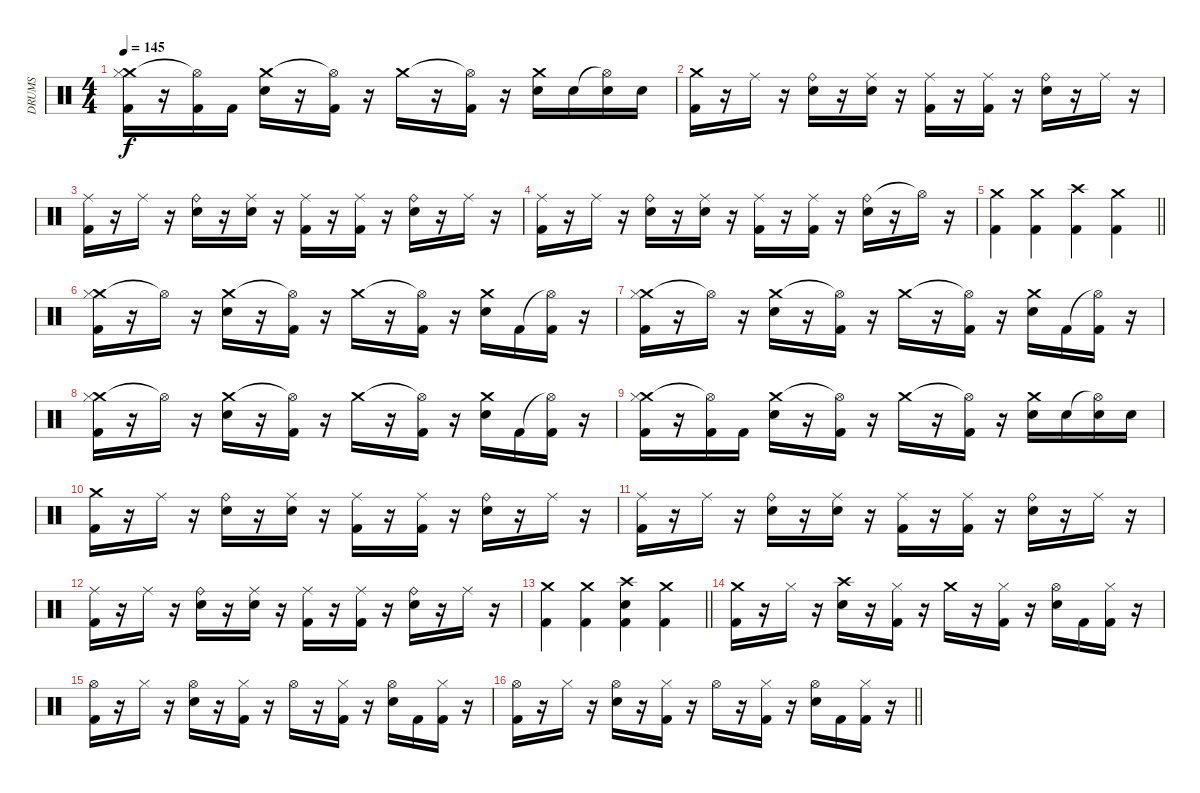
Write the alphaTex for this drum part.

\track ("DRUMS" "DRUMS") {instrument percussion}
\staff {score}
\articulation defaults
\ts (4 4)
\tempo 145
\clef neutral
\ks c
("Crash medium (hit)" "Hi-Hat (closed)" "Kick (hit) 2").16{dy f} r.16 ("Hi-Hat (open)"{t} "Kick (hit) 2").16 "Kick (hit) 2".16 ("Crash medium (hit)" "Electric Snare (hit)").16 r.16 ("Hi-Hat (open)"{t} "Kick (hit) 2").16 r.16 "Crash medium (hit)".16 r.16 ("Hi-Hat (open)"{t} "Kick (hit) 2").16 r.16 ("Crash medium (hit)" "Electric Snare (hit)").16 "Electric Snare (hit)".16 ("Hi-Hat (open)"{t} "Electric Snare (hit)").16 "Electric Snare (hit)".16 |
("Crash medium (hit)" "Kick (hit) 2").16 r.16 "Ride (middle)".16 r.16 ("Ride (bell)" "Electric Snare (hit)").16 r.16 ("Ride (middle)" "Electric Snare (hit)").16 r.16 ("Ride (middle)" "Kick (hit) 2").16 r.16 ("Ride (middle)" "Kick (hit) 2").16 r.16 ("Ride (bell)" "Electric Snare (hit)").16 r.16 "Ride (middle)".16 r.16 |
("Ride (middle)" "Kick (hit) 2").16 r.16 "Ride (middle)".16 r.16 ("Ride (bell)" "Electric Snare (hit)").16 r.16 ("Ride (middle)" "Electric Snare (hit)").16 r.16 ("Ride (middle)" "Kick (hit) 2").16 r.16 ("Ride (middle)" "Kick (hit) 2").16 r.16 ("Ride (bell)" "Electric Snare (hit)").16 r.16 "Ride (middle)".16 r.16 |
("Ride (middle)" "Kick (hit) 2").16 r.16 "Ride (middle)".16 r.16 ("Ride (bell)" "Electric Snare (hit)").16 r.16 ("Ride (middle)" "Electric Snare (hit)").16 r.16 ("Ride (middle)" "Kick (hit) 2").16 r.16 ("Ride (middle)" "Kick (hit) 2").16 r.16 ("Ride (bell)" "Electric Snare (hit)").16 r.16 "Hi-Hat (open)"{t}.16 r.16 |
\barLineRight lightlight
("Crash medium (hit)" "Kick (hit) 2").4 ("Crash medium (hit)" "Kick (hit) 2").4 ("Crash high (hit)" "Kick (hit) 2").4 ("Crash medium (hit)" "Kick (hit) 2").4 |
("Crash medium (hit)" "Hi-Hat (closed)" "Kick (hit) 2").16 r.16 "Hi-Hat (open)"{t}.16 r.16 ("Crash medium (hit)" "Electric Snare (hit)").16 r.16 ("Hi-Hat (open)"{t} "Kick (hit) 2").16 r.16 "Crash medium (hit)".16 r.16 ("Hi-Hat (open)"{t} "Kick (hit) 2").16 r.16 ("Crash medium (hit)" "Electric Snare (hit)").16 "Kick (hit) 2".16 ("Hi-Hat (open)"{t} "Kick (hit) 2").16 r.16 |
("Crash medium (hit)" "Hi-Hat (closed)" "Kick (hit) 2").16 r.16 "Hi-Hat (open)"{t}.16 r.16 ("Crash medium (hit)" "Electric Snare (hit)").16 r.16 ("Hi-Hat (open)"{t} "Kick (hit) 2").16 r.16 "Crash medium (hit)".16 r.16 ("Hi-Hat (open)"{t} "Kick (hit) 2").16 r.16 ("Crash medium (hit)" "Electric Snare (hit)").16 "Kick (hit) 2".16 ("Hi-Hat (open)"{t} "Kick (hit) 2").16 r.16 |
("Crash medium (hit)" "Hi-Hat (closed)" "Kick (hit) 2").16 r.16 "Hi-Hat (open)"{t}.16 r.16 ("Crash medium (hit)" "Electric Snare (hit)").16 r.16 ("Hi-Hat (open)"{t} "Kick (hit) 2").16 r.16 "Crash medium (hit)".16 r.16 ("Hi-Hat (open)"{t} "Kick (hit) 2").16 r.16 ("Crash medium (hit)" "Electric Snare (hit)").16 "Kick (hit) 2".16 ("Hi-Hat (open)"{t} "Kick (hit) 2").16 r.16 |
("Crash medium (hit)" "Hi-Hat (closed)" "Kick (hit) 2").16 r.16 ("Hi-Hat (open)"{t} "Kick (hit) 2").16 "Kick (hit) 2".16 ("Crash medium (hit)" "Electric Snare (hit)").16 r.16 ("Hi-Hat (open)"{t} "Kick (hit) 2").16 r.16 "Crash medium (hit)".16 r.16 ("Hi-Hat (open)"{t} "Kick (hit) 2").16 r.16 ("Crash medium (hit)" "Electric Snare (hit)").16 "Electric Snare (hit)".16 ("Hi-Hat (open)"{t} "Electric Snare (hit)").16 "Electric Snare (hit)".16 |
("Crash medium (hit)" "Kick (hit) 2").16 r.16 "Ride (middle)".16 r.16 ("Ride (bell)" "Electric Snare (hit)").16 r.16 ("Ride (middle)" "Electric Snare (hit)").16 r.16 ("Ride (middle)" "Kick (hit) 2").16 r.16 ("Ride (middle)" "Kick (hit) 2").16 r.16 ("Ride (bell)" "Electric Snare (hit)").16 r.16 "Ride (middle)".16 r.16 |
("Ride (middle)" "Kick (hit) 2").16 r.16 "Ride (middle)".16 r.16 ("Ride (bell)" "Electric Snare (hit)").16 r.16 ("Ride (middle)" "Electric Snare (hit)").16 r.16 ("Ride (middle)" "Kick (hit) 2").16 r.16 ("Ride (middle)" "Kick (hit) 2").16 r.16 ("Ride (bell)" "Electric Snare (hit)").16 r.16 "Ride (middle)".16 r.16 |
("Ride (middle)" "Kick (hit) 2").16 r.16 "Ride (middle)".16 r.16 ("Ride (bell)" "Electric Snare (hit)").16 r.16 ("Ride (middle)" "Electric Snare (hit)").16 r.16 ("Ride (middle)" "Kick (hit) 2").16 r.16 ("Ride (middle)" "Kick (hit) 2").16 r.16 ("Ride (bell)" "Electric Snare (hit)").16 r.16 "Ride (middle)".16 r.16 |
\barLineRight lightlight
("Crash medium (hit)" "Kick (hit) 2").4 ("Crash medium (hit)" "Kick (hit) 2").4 ("Crash high (hit)" "Electric Snare (hit)" "Kick (hit) 2").4 ("Crash medium (hit)" "Kick (hit) 2").4 |
("Crash medium (hit)" "Kick (hit) 2").16 r.16 "Hi-Hat (closed)".16 r.16 ("Crash high (hit)" "Electric Snare (hit)").16 r.16 ("Hi-Hat (closed)" "Kick (hit) 2").16 r.16 "Crash medium (hit)".16 r.16 ("Hi-Hat (closed)" "Kick (hit) 2").16 r.16 ("Hi-Hat (open)" "Electric Snare (hit)").16 "Kick (hit) 2".16 ("Hi-Hat (closed)" "Kick (hit) 2").16 r.16 |
("Hi-Hat (open)" "Kick (hit) 2").16 r.16 "Hi-Hat (closed)".16 r.16 ("Hi-Hat (open)" "Electric Snare (hit)").16 r.16 ("Hi-Hat (closed)" "Kick (hit) 2").16 r.16 "Hi-Hat (open)".16 r.16 ("Hi-Hat (closed)" "Kick (hit) 2").16 r.16 ("Hi-Hat (open)" "Electric Snare (hit)").16 "Kick (hit) 2".16 ("Hi-Hat (closed)" "Kick (hit) 2").16 r.16 |
\barLineRight lightlight
("Hi-Hat (open)" "Kick (hit) 2").16 r.16 "Hi-Hat (closed)".16 r.16 ("Hi-Hat (open)" "Electric Snare (hit)").16 r.16 ("Hi-Hat (closed)" "Kick (hit) 2").16 r.16 "Hi-Hat (open)".16 r.16 ("Hi-Hat (closed)" "Kick (hit) 2").16 r.16 ("Hi-Hat (open)" "Electric Snare (hit)").16 "Kick (hit) 2".16 ("Hi-Hat (closed)" "Kick (hit) 2").16 r.16
